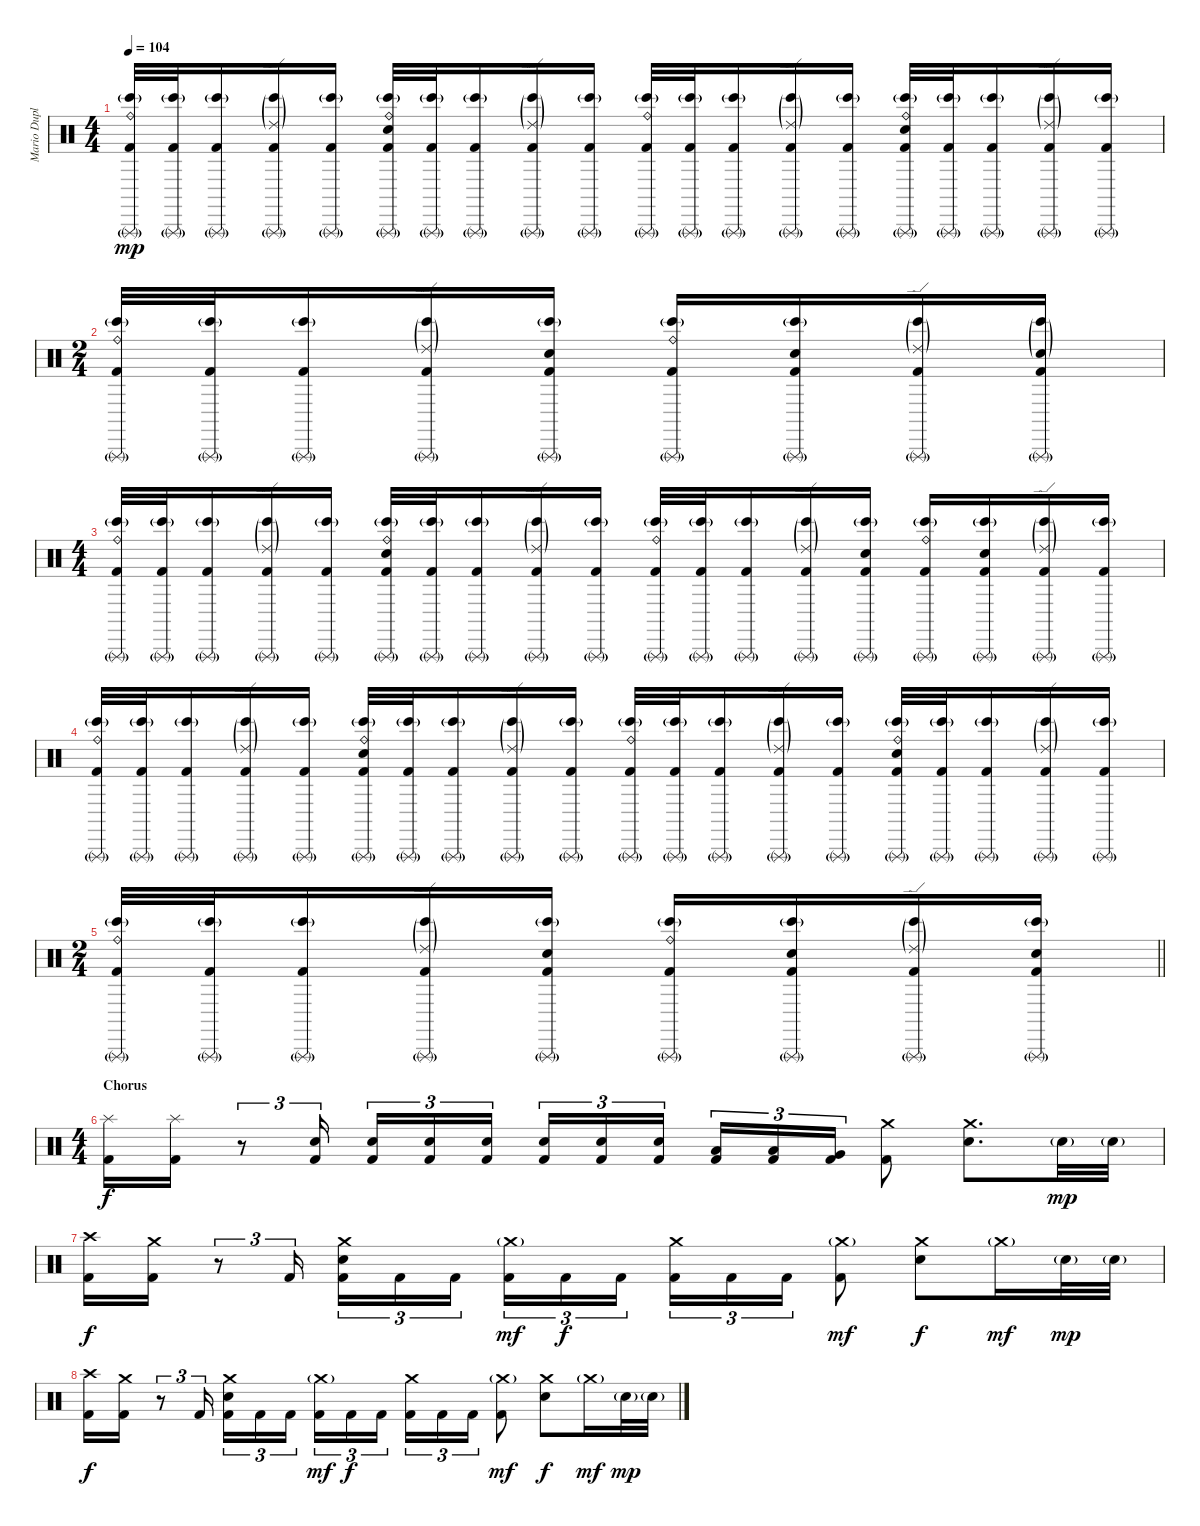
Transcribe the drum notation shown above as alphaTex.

\track ("Mario Duplantier" "Mario Dupl") {instrument percussion}
\staff {score}
\articulation defaults
\ts (4 4)
\tempo 104
\clef neutral
\ks c
("Triangle (rnute)"{g} "Bongo High (hit)"{g} "Ride (bell)" "Kick (hit) 2").32{dy mp} ("Triangle (rnute)"{g} "Bongo High (hit)"{g} "Kick (hit) 2").32 ("Triangle (rnute)"{g} "Bongo High (hit)"{g} "Kick (hit) 2").16 ("Triangle (rnute)"{g} "Bongo High (hit)"{g} "Ride (edge) 2"{g} "Kick (hit) 2").16 ("Triangle (rnute)"{g} "Bongo High (hit)"{g} "Kick (hit) 2").16 ("Triangle (rnute)"{g} "Bongo High (hit)"{g} "Ride (bell)" "Electric Snare (hit)" "Kick (hit) 2").32 ("Triangle (rnute)"{g} "Bongo High (hit)"{g} "Kick (hit) 2").32 ("Triangle (rnute)"{g} "Bongo High (hit)"{g} "Kick (hit) 2").16 ("Triangle (rnute)"{g} "Bongo High (hit)"{g} "Ride (edge) 2"{g} "Kick (hit) 2").16 ("Triangle (rnute)"{g} "Bongo High (hit)"{g} "Kick (hit) 2").16 ("Triangle (rnute)"{g} "Bongo High (hit)"{g} "Ride (bell)" "Kick (hit) 2").32 ("Triangle (rnute)"{g} "Bongo High (hit)"{g} "Kick (hit) 2").32 ("Triangle (rnute)"{g} "Bongo High (hit)"{g} "Kick (hit) 2").16 ("Triangle (rnute)"{g} "Bongo High (hit)"{g} "Ride (edge) 2"{g} "Kick (hit) 2").16 ("Triangle (rnute)"{g} "Bongo High (hit)"{g} "Kick (hit) 2").16 ("Triangle (rnute)"{g} "Bongo High (hit)"{g} "Ride (bell)" "Electric Snare (hit)" "Kick (hit) 2").32 ("Triangle (rnute)"{g} "Bongo High (hit)"{g} "Kick (hit) 2").32 ("Triangle (rnute)"{g} "Bongo High (hit)"{g} "Kick (hit) 2").16 ("Triangle (rnute)"{g} "Bongo High (hit)"{g} "Ride (edge) 2"{g} "Kick (hit) 2").16 ("Triangle (rnute)"{g} "Bongo High (hit)"{g} "Kick (hit) 2").16 |
\ts (2 4)
("Triangle (rnute)"{g} "Bongo High (hit)"{g} "Ride (bell)" "Kick (hit) 2").32 ("Triangle (rnute)"{g} "Bongo High (hit)"{g} "Kick (hit) 2").32 ("Triangle (rnute)"{g} "Bongo High (hit)"{g} "Kick (hit) 2").16 ("Triangle (rnute)"{g} "Bongo High (hit)"{g} "Ride (edge) 2"{g} "Kick (hit) 2").16 ("Triangle (rnute)"{g} "Bongo High (hit)"{g} "Electric Snare (hit)" "Kick (hit) 2").16 ("Triangle (rnute)"{g} "Bongo High (hit)"{g} "Ride (bell)" "Kick (hit) 2").16 ("Triangle (rnute)"{g} "Bongo High (hit)"{g} "Electric Snare (hit)" "Kick (hit) 2").16 ("Triangle (rnute)"{g} "Bongo High (hit)"{g} "Ride (edge) 2"{g} "Kick (hit) 2").16 ("Triangle (rnute)"{g} "Bongo High (hit)"{g} "Electric Snare (hit)"{g} "Kick (hit) 2").16 |
\ts (4 4)
("Triangle (rnute)"{g} "Bongo High (hit)"{g} "Ride (bell)" "Kick (hit) 2").32 ("Triangle (rnute)"{g} "Bongo High (hit)"{g} "Kick (hit) 2").32 ("Triangle (rnute)"{g} "Bongo High (hit)"{g} "Kick (hit) 2").16 ("Triangle (rnute)"{g} "Bongo High (hit)"{g} "Ride (edge) 2"{g} "Kick (hit) 2").16 ("Triangle (rnute)"{g} "Bongo High (hit)"{g} "Kick (hit) 2").16 ("Triangle (rnute)"{g} "Bongo High (hit)"{g} "Ride (bell)" "Electric Snare (hit)" "Kick (hit) 2").32 ("Triangle (rnute)"{g} "Bongo High (hit)"{g} "Kick (hit) 2").32 ("Triangle (rnute)"{g} "Bongo High (hit)"{g} "Kick (hit) 2").16 ("Triangle (rnute)"{g} "Bongo High (hit)"{g} "Ride (edge) 2"{g} "Kick (hit) 2").16 ("Triangle (rnute)"{g} "Bongo High (hit)"{g} "Kick (hit) 2").16 ("Triangle (rnute)"{g} "Bongo High (hit)"{g} "Ride (bell)" "Kick (hit) 2").32 ("Triangle (rnute)"{g} "Bongo High (hit)"{g} "Kick (hit) 2").32 ("Triangle (rnute)"{g} "Bongo High (hit)"{g} "Kick (hit) 2").16 ("Triangle (rnute)"{g} "Bongo High (hit)"{g} "Ride (edge) 2"{g} "Kick (hit) 2").16 ("Triangle (rnute)"{g} "Bongo High (hit)"{g} "Electric Snare (hit)" "Kick (hit) 2").16 ("Triangle (rnute)"{g} "Bongo High (hit)"{g} "Ride (bell)" "Kick (hit) 2").16 ("Triangle (rnute)"{g} "Bongo High (hit)"{g} "Electric Snare (hit)" "Kick (hit) 2").16 ("Triangle (rnute)"{g} "Bongo High (hit)"{g} "Ride (edge) 2"{g} "Kick (hit) 2").16 ("Triangle (rnute)"{g} "Bongo High (hit)"{g} "Kick (hit) 2").16 |
("Triangle (rnute)"{g} "Bongo High (hit)"{g} "Ride (bell)" "Kick (hit) 2").32 ("Triangle (rnute)"{g} "Bongo High (hit)"{g} "Kick (hit) 2").32 ("Triangle (rnute)"{g} "Bongo High (hit)"{g} "Kick (hit) 2").16 ("Triangle (rnute)"{g} "Bongo High (hit)"{g} "Ride (edge) 2"{g} "Kick (hit) 2").16 ("Triangle (rnute)"{g} "Bongo High (hit)"{g} "Kick (hit) 2").16 ("Triangle (rnute)"{g} "Bongo High (hit)"{g} "Ride (bell)" "Electric Snare (hit)" "Kick (hit) 2").32 ("Triangle (rnute)"{g} "Bongo High (hit)"{g} "Kick (hit) 2").32 ("Triangle (rnute)"{g} "Bongo High (hit)"{g} "Kick (hit) 2").16 ("Triangle (rnute)"{g} "Bongo High (hit)"{g} "Ride (edge) 2"{g} "Kick (hit) 2").16 ("Triangle (rnute)"{g} "Bongo High (hit)"{g} "Kick (hit) 2").16 ("Triangle (rnute)"{g} "Bongo High (hit)"{g} "Ride (bell)" "Kick (hit) 2").32 ("Triangle (rnute)"{g} "Bongo High (hit)"{g} "Kick (hit) 2").32 ("Triangle (rnute)"{g} "Bongo High (hit)"{g} "Kick (hit) 2").16 ("Triangle (rnute)"{g} "Bongo High (hit)"{g} "Ride (edge) 2"{g} "Kick (hit) 2").16 ("Triangle (rnute)"{g} "Bongo High (hit)"{g} "Kick (hit) 2").16 ("Triangle (rnute)"{g} "Bongo High (hit)"{g} "Ride (bell)" "Electric Snare (hit)" "Kick (hit) 2").32 ("Triangle (rnute)"{g} "Bongo High (hit)"{g} "Kick (hit) 2").32 ("Triangle (rnute)"{g} "Bongo High (hit)"{g} "Kick (hit) 2").16 ("Triangle (rnute)"{g} "Bongo High (hit)"{g} "Ride (edge) 2"{g} "Kick (hit) 2").16 ("Triangle (rnute)"{g} "Bongo High (hit)"{g} "Kick (hit) 2").16 |
\ts (2 4)
\barLineRight lightlight
("Triangle (rnute)"{g} "Bongo High (hit)"{g} "Ride (bell)" "Kick (hit) 2").32 ("Triangle (rnute)"{g} "Bongo High (hit)"{g} "Kick (hit) 2").32 ("Triangle (rnute)"{g} "Bongo High (hit)"{g} "Kick (hit) 2").16 ("Triangle (rnute)"{g} "Bongo High (hit)"{g} "Ride (edge) 2"{g} "Kick (hit) 2").16 ("Triangle (rnute)"{g} "Bongo High (hit)"{g} "Electric Snare (hit)" "Kick (hit) 2").16 ("Triangle (rnute)"{g} "Bongo High (hit)"{g} "Ride (bell)" "Kick (hit) 2").16 ("Triangle (rnute)"{g} "Bongo High (hit)"{g} "Electric Snare (hit)" "Kick (hit) 2").16 ("Triangle (rnute)"{g} "Bongo High (hit)"{g} "Ride (edge) 2"{g} "Kick (hit) 2").16 ("Triangle (rnute)"{g} "Bongo High (hit)"{g} "Electric Snare (hit)" "Kick (hit) 2").16 |
\ts (4 4)
\section ("" "Chorus")
("Splash (hit)" "Kick (hit) 2").16{dy f} ("Splash (hit)" "Kick (hit) 2").16 r.8{tu (3 2)} ("Electric Snare (hit)" "Kick (hit) 2").16{tu (3 2)} ("Electric Snare (hit)" "Kick (hit) 2").16{tu (3 2)} ("Electric Snare (hit)" "Kick (hit) 2").16{tu (3 2)} ("Electric Snare (hit)" "Kick (hit) 2").16{tu (3 2) beam splitsecondary} ("Electric Snare (hit)" "Kick (hit) 2").16{tu (3 2)} ("Electric Snare (hit)" "Kick (hit) 2").16{tu (3 2)} ("Electric Snare (hit)" "Kick (hit) 2").16{tu (3 2)} ("Low Tom (hit)" "Kick (hit) 2").16{tu (3 2)} ("Low Tom (hit)" "Kick (hit) 2").16{tu (3 2)} ("Very Low Tom (hit)" "Kick (hit) 2").16{tu (3 2)} ("Crash medium (hit)" "Kick (hit) 2").8 ("Crash medium (hit)" "Electric Snare (hit)").8{d} "Electric Snare (hit)"{g}.32{dy mp} "Electric Snare (hit)"{g}.32 |
("Crash high (hit)" "Kick (hit) 2").16{dy f} ("Crash medium (hit)" "Kick (hit) 2").16 r.8{tu (3 2)} "Kick (hit) 2".16{tu (3 2)} ("Crash medium (hit)" "Electric Snare (hit)" "Kick (hit) 2").16{tu (3 2)} "Kick (hit) 2".16{tu (3 2)} "Kick (hit) 2".16{tu (3 2) beam splitsecondary} ("Crash medium (hit)"{g} "Kick (hit) 2").16{tu (3 2) dy mf} "Kick (hit) 2".16{tu (3 2) dy f} "Kick (hit) 2".16{tu (3 2)} ("Crash medium (hit)" "Kick (hit) 2").16{tu (3 2)} "Kick (hit) 2".16{tu (3 2)} "Kick (hit) 2".16{tu (3 2)} ("Crash medium (hit)"{g} "Kick (hit) 2").8{dy mf} ("Crash medium (hit)" "Electric Snare (hit)").8{dy f} "Crash medium (hit)"{g}.16{dy mf} "Electric Snare (hit)"{g}.32{dy mp} "Electric Snare (hit)"{g}.32 |
("Crash high (hit)" "Kick (hit) 2").16{dy f} ("Crash medium (hit)" "Kick (hit) 2").16 r.8{tu (3 2)} "Kick (hit) 2".16{tu (3 2)} ("Crash medium (hit)" "Electric Snare (hit)" "Kick (hit) 2").16{tu (3 2)} "Kick (hit) 2".16{tu (3 2)} "Kick (hit) 2".16{tu (3 2) beam splitsecondary} ("Crash medium (hit)"{g} "Kick (hit) 2").16{tu (3 2) dy mf} "Kick (hit) 2".16{tu (3 2) dy f} "Kick (hit) 2".16{tu (3 2)} ("Crash medium (hit)" "Kick (hit) 2").16{tu (3 2)} "Kick (hit) 2".16{tu (3 2)} "Kick (hit) 2".16{tu (3 2)} ("Crash medium (hit)"{g} "Kick (hit) 2").8{dy mf} ("Crash medium (hit)" "Electric Snare (hit)").8{dy f} "Crash medium (hit)"{g}.16{dy mf} "Electric Snare (hit)"{g}.32{dy mp} "Electric Snare (hit)"{g}.32
